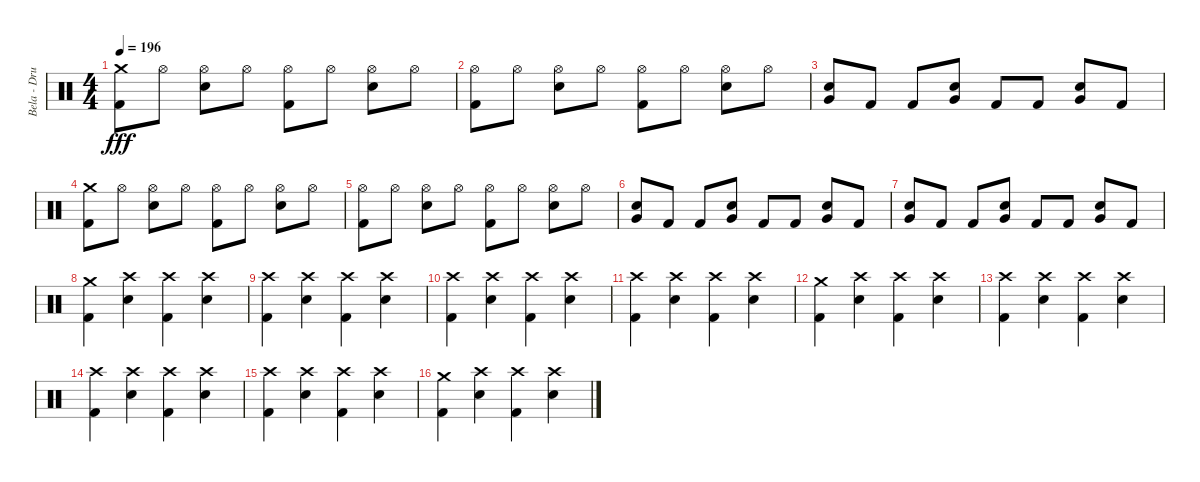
\track ("Bela - Drums" "Bela - Dru") {instrument percussion}
\staff {score}
\articulation defaults
\ts (4 4)
\tempo 196
\clef neutral
\ks c
("Crash medium (hit)" "Kick (hit) 2").8{dy fff} "Hi-Hat (open)".8 ("Hi-Hat (open)" "Electric Snare (hit)").8 "Hi-Hat (open)".8 ("Hi-Hat (open)" "Kick (hit) 2").8 "Hi-Hat (open)".8 ("Hi-Hat (open)" "Electric Snare (hit)").8 "Hi-Hat (open)".8 |
("Hi-Hat (open)" "Kick (hit) 2").8 "Hi-Hat (open)".8 ("Hi-Hat (open)" "Electric Snare (hit)").8 "Hi-Hat (open)".8 ("Hi-Hat (open)" "Kick (hit) 2").8 "Hi-Hat (open)".8 ("Hi-Hat (open)" "Electric Snare (hit)").8 "Hi-Hat (open)".8 |
("Electric Snare (hit)" "Very Low Tom (hit)").8 "Kick (hit) 2".8 "Kick (hit) 2".8 ("Electric Snare (hit)" "Very Low Tom (hit)").8 "Kick (hit) 2".8 "Kick (hit) 2".8 ("Electric Snare (hit)" "Very Low Tom (hit)").8 "Kick (hit) 2".8 |
("Crash medium (hit)" "Kick (hit) 2").8 "Hi-Hat (open)".8 ("Hi-Hat (open)" "Electric Snare (hit)").8 "Hi-Hat (open)".8 ("Hi-Hat (open)" "Kick (hit) 2").8 "Hi-Hat (open)".8 ("Hi-Hat (open)" "Electric Snare (hit)").8 "Hi-Hat (open)".8 |
("Hi-Hat (open)" "Kick (hit) 2").8 "Hi-Hat (open)".8 ("Hi-Hat (open)" "Electric Snare (hit)").8 "Hi-Hat (open)".8 ("Hi-Hat (open)" "Kick (hit) 2").8 "Hi-Hat (open)".8 ("Hi-Hat (open)" "Electric Snare (hit)").8 "Hi-Hat (open)".8 |
("Electric Snare (hit)" "Very Low Tom (hit)").8 "Kick (hit) 2".8 "Kick (hit) 2".8 ("Electric Snare (hit)" "Very Low Tom (hit)").8 "Kick (hit) 2".8 "Kick (hit) 2".8 ("Electric Snare (hit)" "Very Low Tom (hit)").8 "Kick (hit) 2".8 |
("Electric Snare (hit)" "Very Low Tom (hit)").8 "Kick (hit) 2".8 "Kick (hit) 2".8 ("Electric Snare (hit)" "Very Low Tom (hit)").8 "Kick (hit) 2".8 "Kick (hit) 2".8 ("Electric Snare (hit)" "Very Low Tom (hit)").8 "Kick (hit) 2".8 |
("Crash medium (hit)" "Kick (hit) 2").4 ("Crash high (hit)" "Electric Snare (hit)").4 ("Crash high (hit)" "Kick (hit) 2").4 ("Crash high (hit)" "Electric Snare (hit)").4 |
("Crash high (hit)" "Kick (hit) 2").4 ("Crash high (hit)" "Electric Snare (hit)").4 ("Crash high (hit)" "Kick (hit) 2").4 ("Crash high (hit)" "Electric Snare (hit)").4 |
("Crash high (hit)" "Kick (hit) 2").4 ("Crash high (hit)" "Electric Snare (hit)").4 ("Crash high (hit)" "Kick (hit) 2").4 ("Crash high (hit)" "Electric Snare (hit)").4 |
("Crash high (hit)" "Kick (hit) 2").4 ("Crash high (hit)" "Electric Snare (hit)").4 ("Crash high (hit)" "Kick (hit) 2").4 ("Crash high (hit)" "Electric Snare (hit)").4 |
("Crash medium (hit)" "Kick (hit) 2").4 ("Crash high (hit)" "Electric Snare (hit)").4 ("Crash high (hit)" "Kick (hit) 2").4 ("Crash high (hit)" "Electric Snare (hit)").4 |
("Crash high (hit)" "Kick (hit) 2").4 ("Crash high (hit)" "Electric Snare (hit)").4 ("Crash high (hit)" "Kick (hit) 2").4 ("Crash high (hit)" "Electric Snare (hit)").4 |
("Crash high (hit)" "Kick (hit) 2").4 ("Crash high (hit)" "Electric Snare (hit)").4 ("Crash high (hit)" "Kick (hit) 2").4 ("Crash high (hit)" "Electric Snare (hit)").4 |
("Crash high (hit)" "Kick (hit) 2").4 ("Crash high (hit)" "Electric Snare (hit)").4 ("Crash high (hit)" "Kick (hit) 2").4 ("Crash high (hit)" "Electric Snare (hit)").4 |
("Crash medium (hit)" "Kick (hit) 2").4 ("Crash high (hit)" "Electric Snare (hit)").4 ("Crash high (hit)" "Kick (hit) 2").4 ("Crash high (hit)" "Electric Snare (hit)").4
